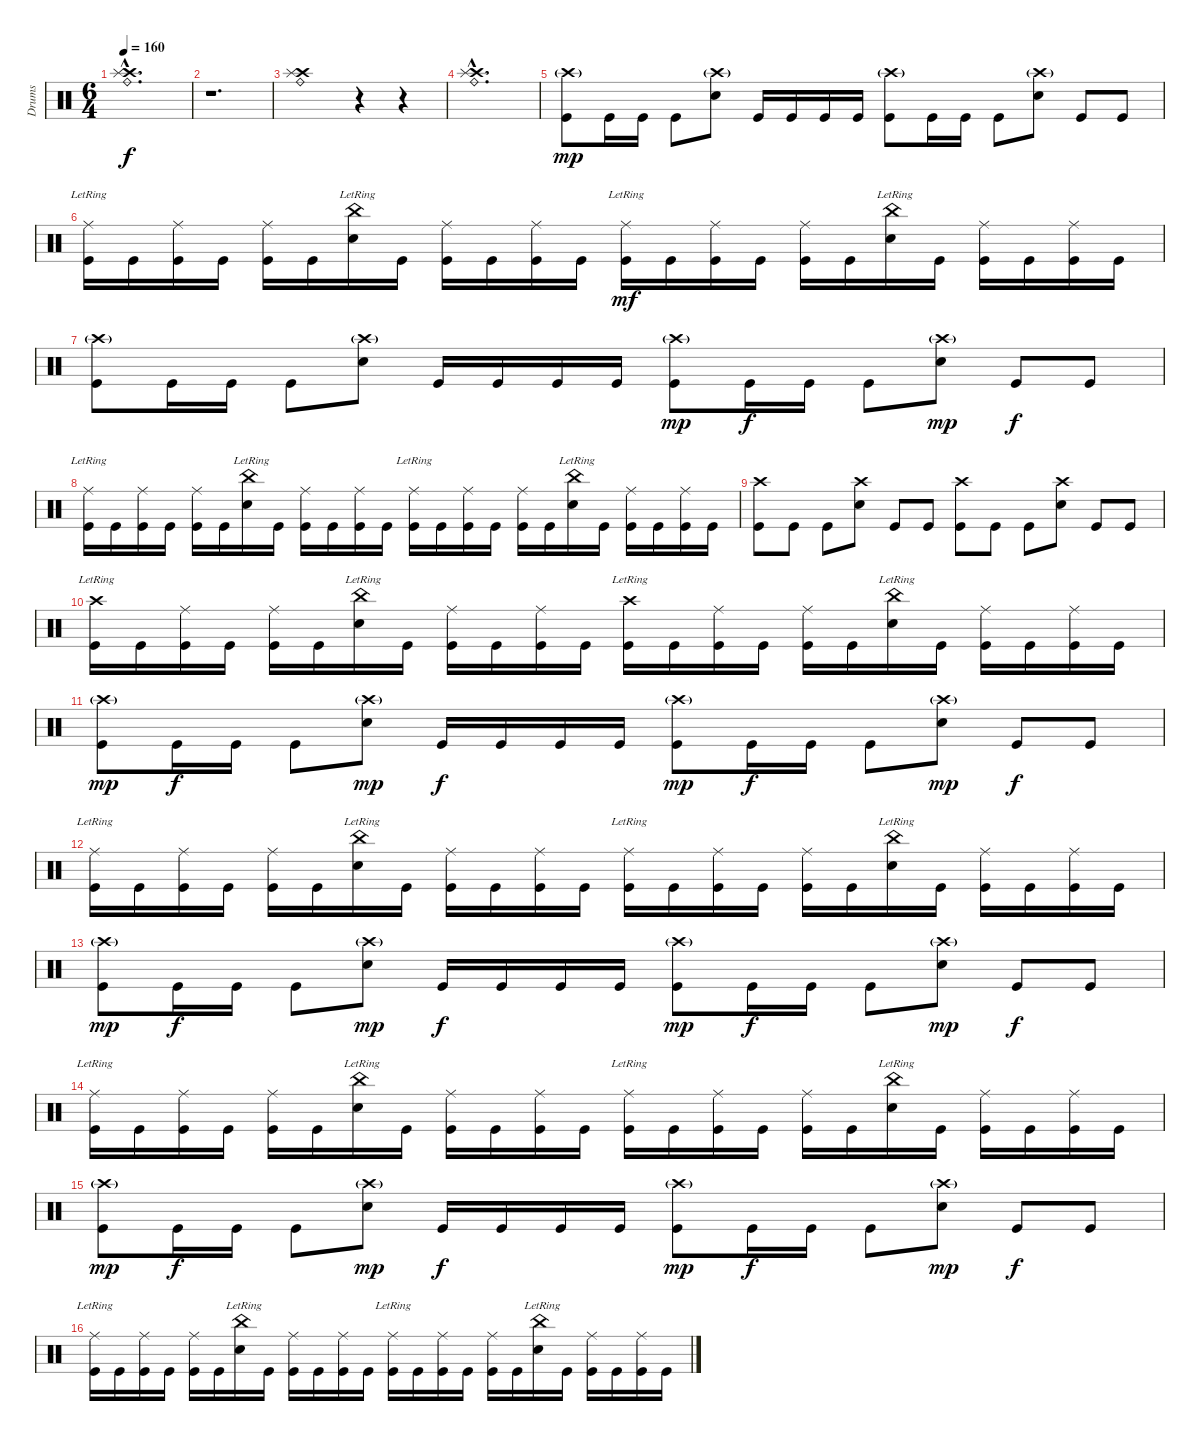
\track ("Drums" "Drums") {instrument percussion}
\staff {score}
\articulation defaults
\ts (6 4)
\tempo 160
\clef neutral
\ks c
("Crash high (hit)"{hac} "Ride (bell)"{hac} "Splash (hit)"{hac}).1{d dy f} |
r.1{d} |
("Crash high (hit)" "Ride (bell)" "Splash (hit)").1 r.4 r.4 |
("Crash high (hit)"{hac} "Ride (bell)"{hac} "Splash (hit)"{hac}).1{d} |
("Crash high (hit)"{g} "Kick (hit)").8{dy mp volume 8} "Kick (hit)".16 "Kick (hit)".16 "Kick (hit)".8 ("Crash high (hit)"{g} "Snare (hit) 2").8 "Kick (hit)".16 "Kick (hit)".16 "Kick (hit)".16 "Kick (hit)".16 ("Crash high (hit)"{g} "Kick (hit)").8{volume 10} "Kick (hit)".16 "Kick (hit)".16 "Kick (hit)".8 ("Crash high (hit)"{g} "Snare (hit) 2").8 "Kick (hit)".8 "Kick (hit)".8 |
("Ride (middle)" "Kick (hit)"{lr}).16{volume 11} "Kick (hit)".16 ("Ride (middle)" "Kick (hit)").16 "Kick (hit)".16 ("Ride (middle)" "Kick (hit)").16 "Kick (hit)".16 ("China (hit)"{lr} "Snare (hit) 2").16 "Kick (hit)".16 ("Ride (middle)" "Kick (hit)").16 "Kick (hit)".16 ("Ride (middle)" "Kick (hit)").16 "Kick (hit)".16 ("Ride (middle)" "Kick (hit)"{lr}).16{dy mf} "Kick (hit)".16 ("Ride (middle)" "Kick (hit)").16 "Kick (hit)".16 ("Ride (middle)" "Kick (hit)").16{volume 13} "Kick (hit)".16 ("China (hit)"{lr} "Snare (hit) 2").16 "Kick (hit)".16 ("Ride (middle)" "Kick (hit)").16 "Kick (hit)".16 ("Ride (middle)" "Kick (hit)").16 "Kick (hit)".16 |
("Crash high (hit)"{g} "Kick (hit)").8 "Kick (hit)".16 "Kick (hit)".16 "Kick (hit)".8 ("Crash high (hit)"{g} "Snare (hit) 2").8 "Kick (hit)".16 "Kick (hit)".16 "Kick (hit)".16 "Kick (hit)".16 ("Crash high (hit)"{g} "Kick (hit)").8{dy mp} "Kick (hit)".16{dy f} "Kick (hit)".16 "Kick (hit)".8 ("Crash high (hit)"{g} "Snare (hit) 2").8{dy mp} "Kick (hit)".8{dy f} "Kick (hit)".8 |
("Ride (middle)" "Kick (hit)"{lr}).16 "Kick (hit)".16 ("Ride (middle)" "Kick (hit)").16 "Kick (hit)".16 ("Ride (middle)" "Kick (hit)").16 "Kick (hit)".16 ("China (hit)"{lr} "Snare (hit) 2").16 "Kick (hit)".16 ("Ride (middle)" "Kick (hit)").16 "Kick (hit)".16 ("Ride (middle)" "Kick (hit)").16 "Kick (hit)".16 ("Ride (middle)" "Kick (hit)"{lr}).16 "Kick (hit)".16 ("Ride (middle)" "Kick (hit)").16 "Kick (hit)".16 ("Ride (middle)" "Kick (hit)").16 "Kick (hit)".16 ("China (hit)"{lr} "Snare (hit) 2").16 "Kick (hit)".16 ("Ride (middle)" "Kick (hit)").16 "Kick (hit)".16 ("Ride (middle)" "Kick (hit)").16 "Kick (hit)".16 |
("Crash high (hit)" "Kick (hit)").8 "Kick (hit)".8 "Kick (hit)".8 ("Crash high (hit)" "Snare (hit) 2").8 "Kick (hit)".8 "Kick (hit)".8 ("Crash high (hit)" "Kick (hit)").8 "Kick (hit)".8 "Kick (hit)".8 ("Crash high (hit)" "Snare (hit) 2").8 "Kick (hit)".8 "Kick (hit)".8 |
("Crash high (hit)" "Kick (hit)"{lr}).16 "Kick (hit)".16 ("Ride (middle)" "Kick (hit)").16 "Kick (hit)".16 ("Ride (middle)" "Kick (hit)").16 "Kick (hit)".16 ("China (hit)"{lr} "Snare (hit) 2").16 "Kick (hit)".16 ("Ride (middle)" "Kick (hit)").16 "Kick (hit)".16 ("Ride (middle)" "Kick (hit)").16 "Kick (hit)".16 ("Crash high (hit)" "Kick (hit)"{lr}).16 "Kick (hit)".16 ("Ride (middle)" "Kick (hit)").16 "Kick (hit)".16 ("Ride (middle)" "Kick (hit)").16 "Kick (hit)".16 ("China (hit)"{lr} "Snare (hit) 2").16 "Kick (hit)".16 ("Ride (middle)" "Kick (hit)").16 "Kick (hit)".16 ("Ride (middle)" "Kick (hit)").16 "Kick (hit)".16 |
("Crash high (hit)"{g} "Kick (hit)").8{dy mp} "Kick (hit)".16{dy f} "Kick (hit)".16 "Kick (hit)".8 ("Crash high (hit)"{g} "Snare (hit) 2").8{dy mp} "Kick (hit)".16{dy f} "Kick (hit)".16 "Kick (hit)".16 "Kick (hit)".16 ("Crash high (hit)"{g} "Kick (hit)").8{dy mp} "Kick (hit)".16{dy f} "Kick (hit)".16 "Kick (hit)".8 ("Crash high (hit)"{g} "Snare (hit) 2").8{dy mp} "Kick (hit)".8{dy f} "Kick (hit)".8 |
("Ride (middle)" "Kick (hit)"{lr}).16 "Kick (hit)".16 ("Ride (middle)" "Kick (hit)").16 "Kick (hit)".16 ("Ride (middle)" "Kick (hit)").16 "Kick (hit)".16 ("China (hit)"{lr} "Snare (hit) 2").16 "Kick (hit)".16 ("Ride (middle)" "Kick (hit)").16 "Kick (hit)".16 ("Ride (middle)" "Kick (hit)").16 "Kick (hit)".16 ("Ride (middle)" "Kick (hit)"{lr}).16 "Kick (hit)".16 ("Ride (middle)" "Kick (hit)").16 "Kick (hit)".16 ("Ride (middle)" "Kick (hit)").16 "Kick (hit)".16 ("China (hit)"{lr} "Snare (hit) 2").16 "Kick (hit)".16 ("Ride (middle)" "Kick (hit)").16 "Kick (hit)".16 ("Ride (middle)" "Kick (hit)").16 "Kick (hit)".16 |
("Crash high (hit)"{g} "Kick (hit)").8{dy mp} "Kick (hit)".16{dy f} "Kick (hit)".16 "Kick (hit)".8 ("Crash high (hit)"{g} "Snare (hit) 2").8{dy mp} "Kick (hit)".16{dy f} "Kick (hit)".16 "Kick (hit)".16 "Kick (hit)".16 ("Crash high (hit)"{g} "Kick (hit)").8{dy mp} "Kick (hit)".16{dy f} "Kick (hit)".16 "Kick (hit)".8 ("Crash high (hit)"{g} "Snare (hit) 2").8{dy mp} "Kick (hit)".8{dy f} "Kick (hit)".8 |
("Ride (middle)" "Kick (hit)"{lr}).16 "Kick (hit)".16 ("Ride (middle)" "Kick (hit)").16 "Kick (hit)".16 ("Ride (middle)" "Kick (hit)").16 "Kick (hit)".16 ("China (hit)"{lr} "Snare (hit) 2").16 "Kick (hit)".16 ("Ride (middle)" "Kick (hit)").16 "Kick (hit)".16 ("Ride (middle)" "Kick (hit)").16 "Kick (hit)".16 ("Ride (middle)" "Kick (hit)"{lr}).16 "Kick (hit)".16 ("Ride (middle)" "Kick (hit)").16 "Kick (hit)".16 ("Ride (middle)" "Kick (hit)").16 "Kick (hit)".16 ("China (hit)"{lr} "Snare (hit) 2").16 "Kick (hit)".16 ("Ride (middle)" "Kick (hit)").16 "Kick (hit)".16 ("Ride (middle)" "Kick (hit)").16 "Kick (hit)".16 |
("Crash high (hit)"{g} "Kick (hit)").8{dy mp} "Kick (hit)".16{dy f} "Kick (hit)".16 "Kick (hit)".8 ("Crash high (hit)"{g} "Snare (hit) 2").8{dy mp} "Kick (hit)".16{dy f} "Kick (hit)".16 "Kick (hit)".16 "Kick (hit)".16 ("Crash high (hit)"{g} "Kick (hit)").8{dy mp} "Kick (hit)".16{dy f} "Kick (hit)".16 "Kick (hit)".8 ("Crash high (hit)"{g} "Snare (hit) 2").8{dy mp} "Kick (hit)".8{dy f} "Kick (hit)".8 |
("Ride (middle)" "Kick (hit)"{lr}).16 "Kick (hit)".16 ("Ride (middle)" "Kick (hit)").16 "Kick (hit)".16 ("Ride (middle)" "Kick (hit)").16 "Kick (hit)".16 ("China (hit)"{lr} "Snare (hit) 2").16 "Kick (hit)".16 ("Ride (middle)" "Kick (hit)").16 "Kick (hit)".16 ("Ride (middle)" "Kick (hit)").16 "Kick (hit)".16 ("Ride (middle)" "Kick (hit)"{lr}).16 "Kick (hit)".16 ("Ride (middle)" "Kick (hit)").16 "Kick (hit)".16 ("Ride (middle)" "Kick (hit)").16 "Kick (hit)".16 ("China (hit)"{lr} "Snare (hit) 2").16 "Kick (hit)".16 ("Ride (middle)" "Kick (hit)").16 "Kick (hit)".16 ("Ride (middle)" "Kick (hit)").16 "Kick (hit)".16
